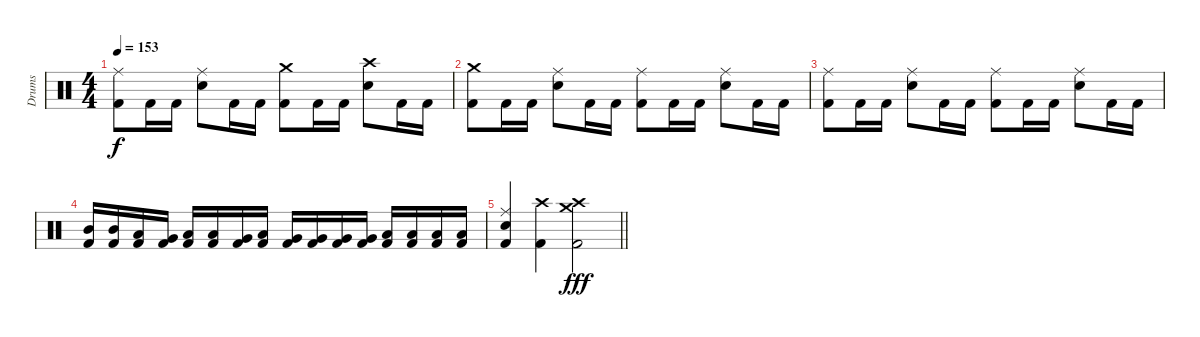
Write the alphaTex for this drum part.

\track ("Drums" "Drums") {instrument percussion}
\staff
\articulation defaults
\ts (4 4)
\tempo 153
\clef neutral
\ks c
("Kick (hit) 2" "Ride (middle)").8{dy f} "Kick (hit) 2".16 "Kick (hit) 2".16 ("Electric Snare (hit)" "Ride (middle)").8 "Kick (hit) 2".16 "Kick (hit) 2".16 ("Kick (hit) 2" "Crash medium (hit)").8 "Kick (hit) 2".16 "Kick (hit) 2".16 ("Electric Snare (hit)" "Crash high (hit)").8 "Kick (hit) 2".16 "Kick (hit) 2".16 |
("Kick (hit) 2" "Crash medium (hit)").8 "Kick (hit) 2".16 "Kick (hit) 2".16 ("Electric Snare (hit)" "Ride (middle)").8 "Kick (hit) 2".16 "Kick (hit) 2".16 ("Kick (hit) 2" "Ride (middle)").8 "Kick (hit) 2".16 "Kick (hit) 2".16 ("Electric Snare (hit)" "Ride (middle)").8 "Kick (hit) 2".16 "Kick (hit) 2".16 |
("Kick (hit) 2" "Ride (middle)").8 "Kick (hit) 2".16 "Kick (hit) 2".16 ("Electric Snare (hit)" "Ride (middle)").8 "Kick (hit) 2".16 "Kick (hit) 2".16 ("Kick (hit) 2" "Ride (middle)").8 "Kick (hit) 2".16 "Kick (hit) 2".16 ("Electric Snare (hit)" "Ride (middle)").8 "Kick (hit) 2".16 "Kick (hit) 2".16 |
("Kick (hit) 2" "Mid Tom (hit)").16 ("Kick (hit) 2" "Mid Tom (hit)").16 ("Kick (hit) 2" "Low Tom (hit)").16 ("Kick (hit) 2" "Very Low Tom (hit)").16 ("Kick (hit) 2" "Low Tom (hit)").16 ("Kick (hit) 2" "Low Tom (hit)").16 ("Kick (hit) 2" "Very Low Tom (hit)").16 ("Kick (hit) 2" "Low Floor Tom (hit)").16 ("Kick (hit) 2" "Very Low Tom (hit)").16 ("Kick (hit) 2" "Very Low Tom (hit)").16 ("Kick (hit) 2" "Very Low Tom (hit)").16 ("Kick (hit) 2" "Very Low Tom (hit)").16 ("Kick (hit) 2" "Low Floor Tom (hit)").16 ("Kick (hit) 2" "Low Floor Tom (hit)").16 ("Kick (hit) 2" "Low Floor Tom (hit)").16 ("Kick (hit) 2" "Low Floor Tom (hit)").16 |
\barLineRight lightlight
("Kick (hit) 2" "Electric Snare (hit)" "Ride (middle)").4 ("Kick (hit) 2" "Crash high (hit)").4 ("Kick (hit) 2" "Crash medium (hit)" "Crash high (hit)").2{dy fff}
